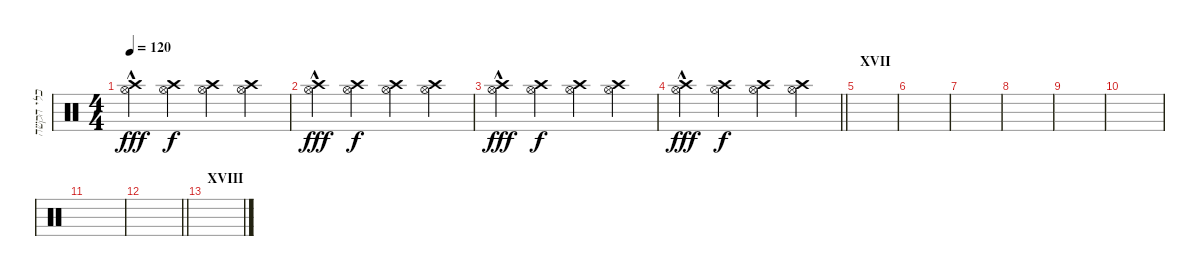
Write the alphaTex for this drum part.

\track ("כלי הקשה" "כלי הקשה") {instrument percussion}
\staff {score}
\articulation defaults
\ts (4 4)
\tempo 120
\clef neutral
\ks c
("Crash high (hit)" "Hi-Hat (open)"{hac}).4{dy fff} ("Crash high (hit)" "Hi-Hat (open)").4{dy f} ("Crash high (hit)" "Hi-Hat (open)").4 ("Crash high (hit)" "Hi-Hat (open)").4 |
("Crash high (hit)" "Hi-Hat (open)"{hac}).4{dy fff} ("Crash high (hit)" "Hi-Hat (open)").4{dy f} ("Crash high (hit)" "Hi-Hat (open)").4 ("Crash high (hit)" "Hi-Hat (open)").4 |
("Crash high (hit)" "Hi-Hat (open)"{hac}).4{dy fff} ("Crash high (hit)" "Hi-Hat (open)").4{dy f} ("Crash high (hit)" "Hi-Hat (open)").4 ("Crash high (hit)" "Hi-Hat (open)").4 |
\barLineRight lightlight
("Crash high (hit)" "Hi-Hat (open)"{hac}).4{dy fff} ("Crash high (hit)" "Hi-Hat (open)").4{dy f} ("Crash high (hit)" "Hi-Hat (open)").4 ("Crash high (hit)" "Hi-Hat (open)").4 |
\section ("" "XVII")
|
|
|
|
|
|
|
\barLineRight lightlight
|
\section ("" "XVIII")
